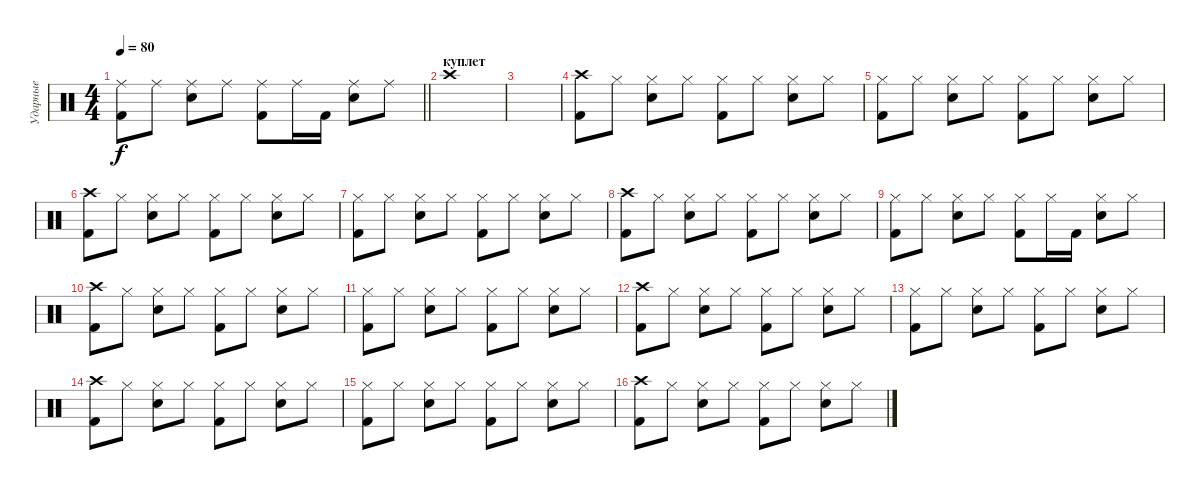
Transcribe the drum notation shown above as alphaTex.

\track ("Ударные" "Ударные") {instrument percussion}
\staff {score}
\articulation defaults
\ts (4 4)
\tempo 80
\clef neutral
\barLineRight lightlight
\ks c
("Ride (middle)" "Kick (hit) 2").8{dy f} "Ride (middle)".8 ("Ride (middle)" "Electric Snare (hit)").8 "Ride (middle)".8 ("Kick (hit) 2" "Ride (middle)").8 "Ride (middle)".16 "Kick (hit) 2".16 ("Ride (middle)" "Electric Snare (hit)").8 "Ride (middle)".8 |
\section ("" "куплет")
"Crash high (hit)".1 |
|
("Crash high (hit)" "Kick (hit) 2").8 "Hi-Hat (closed)".8 ("Hi-Hat (closed)" "Electric Snare (hit)").8 "Hi-Hat (closed)".8 ("Kick (hit) 2" "Hi-Hat (closed)").8 "Hi-Hat (closed)".8 ("Hi-Hat (closed)" "Electric Snare (hit)").8 "Hi-Hat (closed)".8 |
("Hi-Hat (closed)" "Kick (hit) 2").8 "Hi-Hat (closed)".8 ("Hi-Hat (closed)" "Electric Snare (hit)").8 "Hi-Hat (closed)".8 ("Kick (hit) 2" "Hi-Hat (closed)").8 "Hi-Hat (closed)".8 ("Hi-Hat (closed)" "Electric Snare (hit)").8 "Hi-Hat (closed)".8 |
("Crash high (hit)" "Kick (hit) 2").8 "Hi-Hat (closed)".8 ("Hi-Hat (closed)" "Electric Snare (hit)").8 "Hi-Hat (closed)".8 ("Kick (hit) 2" "Hi-Hat (closed)").8 "Hi-Hat (closed)".8 ("Hi-Hat (closed)" "Electric Snare (hit)").8 "Hi-Hat (closed)".8 |
("Hi-Hat (closed)" "Kick (hit) 2").8 "Hi-Hat (closed)".8 ("Hi-Hat (closed)" "Electric Snare (hit)").8 "Hi-Hat (closed)".8 ("Kick (hit) 2" "Hi-Hat (closed)").8 "Hi-Hat (closed)".8 ("Hi-Hat (closed)" "Electric Snare (hit)").8 "Hi-Hat (closed)".8 |
("Crash high (hit)" "Kick (hit) 2").8 "Hi-Hat (closed)".8 ("Hi-Hat (closed)" "Electric Snare (hit)").8 "Hi-Hat (closed)".8 ("Kick (hit) 2" "Hi-Hat (closed)").8 "Hi-Hat (closed)".8 ("Hi-Hat (closed)" "Electric Snare (hit)").8 "Hi-Hat (closed)".8 |
("Hi-Hat (closed)" "Kick (hit) 2").8 "Hi-Hat (closed)".8 ("Hi-Hat (closed)" "Electric Snare (hit)").8 "Hi-Hat (closed)".8 ("Kick (hit) 2" "Hi-Hat (closed)").8 "Hi-Hat (closed)".16 "Kick (hit) 2".16 ("Hi-Hat (closed)" "Electric Snare (hit)").8 "Hi-Hat (closed)".8 |
("Crash high (hit)" "Kick (hit) 2").8 "Hi-Hat (closed)".8 ("Hi-Hat (closed)" "Electric Snare (hit)").8 "Hi-Hat (closed)".8 ("Kick (hit) 2" "Hi-Hat (closed)").8 "Hi-Hat (closed)".8 ("Hi-Hat (closed)" "Electric Snare (hit)").8 "Hi-Hat (closed)".8 |
("Hi-Hat (closed)" "Kick (hit) 2").8 "Hi-Hat (closed)".8 ("Hi-Hat (closed)" "Electric Snare (hit)").8 "Hi-Hat (closed)".8 ("Kick (hit) 2" "Hi-Hat (closed)").8 "Hi-Hat (closed)".8 ("Hi-Hat (closed)" "Electric Snare (hit)").8 "Hi-Hat (closed)".8 |
("Crash high (hit)" "Kick (hit) 2").8 "Hi-Hat (closed)".8 ("Hi-Hat (closed)" "Electric Snare (hit)").8 "Hi-Hat (closed)".8 ("Kick (hit) 2" "Hi-Hat (closed)").8 "Hi-Hat (closed)".8 ("Hi-Hat (closed)" "Electric Snare (hit)").8 "Hi-Hat (closed)".8 |
("Hi-Hat (closed)" "Kick (hit) 2").8 "Hi-Hat (closed)".8 ("Hi-Hat (closed)" "Electric Snare (hit)").8 "Hi-Hat (closed)".8 ("Kick (hit) 2" "Hi-Hat (closed)").8 "Hi-Hat (closed)".8 ("Hi-Hat (closed)" "Electric Snare (hit)").8 "Hi-Hat (closed)".8 |
("Crash high (hit)" "Kick (hit) 2").8 "Hi-Hat (closed)".8 ("Hi-Hat (closed)" "Electric Snare (hit)").8 "Hi-Hat (closed)".8 ("Kick (hit) 2" "Hi-Hat (closed)").8 "Hi-Hat (closed)".8 ("Hi-Hat (closed)" "Electric Snare (hit)").8 "Hi-Hat (closed)".8 |
("Hi-Hat (closed)" "Kick (hit) 2").8 "Hi-Hat (closed)".8 ("Hi-Hat (closed)" "Electric Snare (hit)").8 "Hi-Hat (closed)".8 ("Kick (hit) 2" "Hi-Hat (closed)").8 "Hi-Hat (closed)".8 ("Hi-Hat (closed)" "Electric Snare (hit)").8 "Hi-Hat (closed)".8 |
("Crash high (hit)" "Kick (hit) 2").8 "Hi-Hat (closed)".8 ("Hi-Hat (closed)" "Electric Snare (hit)").8 "Hi-Hat (closed)".8 ("Kick (hit) 2" "Hi-Hat (closed)").8 "Hi-Hat (closed)".8 ("Hi-Hat (closed)" "Electric Snare (hit)").8 "Hi-Hat (closed)".8
